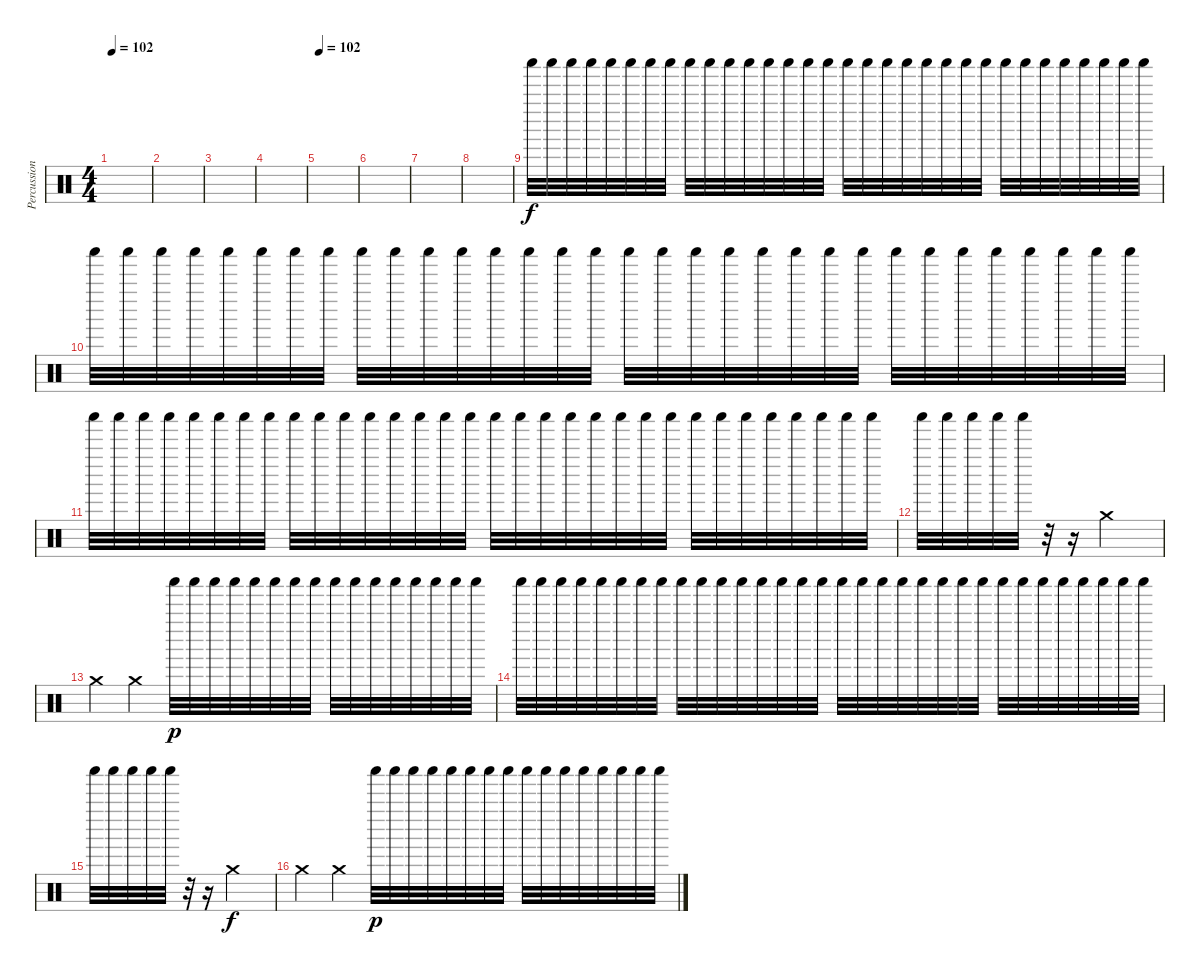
\track ("Percussion" "Percussion") {instrument percussion}
\staff
\articulation defaults
\ts (4 4)
\tempo 102
\clef neutral
\ks c
|
|
|
|
\tempo 102
|
|
|
|
"Shaker (hit)".32 "Shaker (hit)".32 "Shaker (hit)".32 "Shaker (hit)".32 "Shaker (hit)".32 "Shaker (hit)".32 "Shaker (hit)".32 "Shaker (hit)".32 "Shaker (hit)".32 "Shaker (hit)".32 "Shaker (hit)".32 "Shaker (hit)".32 "Shaker (hit)".32 "Shaker (hit)".32 "Shaker (hit)".32 "Shaker (hit)".32 "Shaker (hit)".32 "Shaker (hit)".32 "Shaker (hit)".32 "Shaker (hit)".32 "Shaker (hit)".32 "Shaker (hit)".32 "Shaker (hit)".32 "Shaker (hit)".32 "Shaker (hit)".32 "Shaker (hit)".32 "Shaker (hit)".32 "Shaker (hit)".32 "Shaker (hit)".32 "Shaker (hit)".32 "Shaker (hit)".32 "Shaker (hit)".32 |
"Shaker (hit)".32 "Shaker (hit)".32 "Shaker (hit)".32 "Shaker (hit)".32 "Shaker (hit)".32 "Shaker (hit)".32 "Shaker (hit)".32 "Shaker (hit)".32 "Shaker (hit)".32 "Shaker (hit)".32 "Shaker (hit)".32 "Shaker (hit)".32 "Shaker (hit)".32 "Shaker (hit)".32 "Shaker (hit)".32 "Shaker (hit)".32 "Shaker (hit)".32 "Shaker (hit)".32 "Shaker (hit)".32 "Shaker (hit)".32 "Shaker (hit)".32 "Shaker (hit)".32 "Shaker (hit)".32 "Shaker (hit)".32 "Shaker (hit)".32 "Shaker (hit)".32 "Shaker (hit)".32 "Shaker (hit)".32 "Shaker (hit)".32 "Shaker (hit)".32 "Shaker (hit)".32 "Shaker (hit)".32 |
"Shaker (hit)".32 "Shaker (hit)".32 "Shaker (hit)".32 "Shaker (hit)".32 "Shaker (hit)".32 "Shaker (hit)".32 "Shaker (hit)".32 "Shaker (hit)".32 "Shaker (hit)".32 "Shaker (hit)".32 "Shaker (hit)".32 "Shaker (hit)".32 "Shaker (hit)".32 "Shaker (hit)".32 "Shaker (hit)".32 "Shaker (hit)".32 "Shaker (hit)".32 "Shaker (hit)".32 "Shaker (hit)".32 "Shaker (hit)".32 "Shaker (hit)".32 "Shaker (hit)".32 "Shaker (hit)".32 "Shaker (hit)".32 "Shaker (hit)".32 "Shaker (hit)".32 "Shaker (hit)".32 "Shaker (hit)".32 "Shaker (hit)".32 "Shaker (hit)".32 "Shaker (hit)".32 "Shaker (hit)".32 |
"Shaker (hit)".32 "Shaker (hit)".32 "Shaker (hit)".32 "Shaker (hit)".32 "Shaker (hit)".32 r.32 r.16 "Crash medium (hit)".2{dy f} |
"Crash medium (hit)".4 "Crash medium (hit)".4 "Shaker (hit)".32{dy p} "Shaker (hit)".32 "Shaker (hit)".32 "Shaker (hit)".32 "Shaker (hit)".32 "Shaker (hit)".32 "Shaker (hit)".32 "Shaker (hit)".32 "Shaker (hit)".32 "Shaker (hit)".32 "Shaker (hit)".32 "Shaker (hit)".32 "Shaker (hit)".32 "Shaker (hit)".32 "Shaker (hit)".32 "Shaker (hit)".32 |
"Shaker (hit)".32 "Shaker (hit)".32 "Shaker (hit)".32 "Shaker (hit)".32 "Shaker (hit)".32 "Shaker (hit)".32 "Shaker (hit)".32 "Shaker (hit)".32 "Shaker (hit)".32 "Shaker (hit)".32 "Shaker (hit)".32 "Shaker (hit)".32 "Shaker (hit)".32 "Shaker (hit)".32 "Shaker (hit)".32 "Shaker (hit)".32 "Shaker (hit)".32 "Shaker (hit)".32 "Shaker (hit)".32 "Shaker (hit)".32 "Shaker (hit)".32 "Shaker (hit)".32 "Shaker (hit)".32 "Shaker (hit)".32 "Shaker (hit)".32 "Shaker (hit)".32 "Shaker (hit)".32 "Shaker (hit)".32 "Shaker (hit)".32 "Shaker (hit)".32 "Shaker (hit)".32 "Shaker (hit)".32 |
"Shaker (hit)".32 "Shaker (hit)".32 "Shaker (hit)".32 "Shaker (hit)".32 "Shaker (hit)".32 r.32 r.16 "Crash medium (hit)".2{dy f} |
"Crash medium (hit)".4 "Crash medium (hit)".4 "Shaker (hit)".32{dy p} "Shaker (hit)".32 "Shaker (hit)".32 "Shaker (hit)".32 "Shaker (hit)".32 "Shaker (hit)".32 "Shaker (hit)".32 "Shaker (hit)".32 "Shaker (hit)".32 "Shaker (hit)".32 "Shaker (hit)".32 "Shaker (hit)".32 "Shaker (hit)".32 "Shaker (hit)".32 "Shaker (hit)".32 "Shaker (hit)".32
